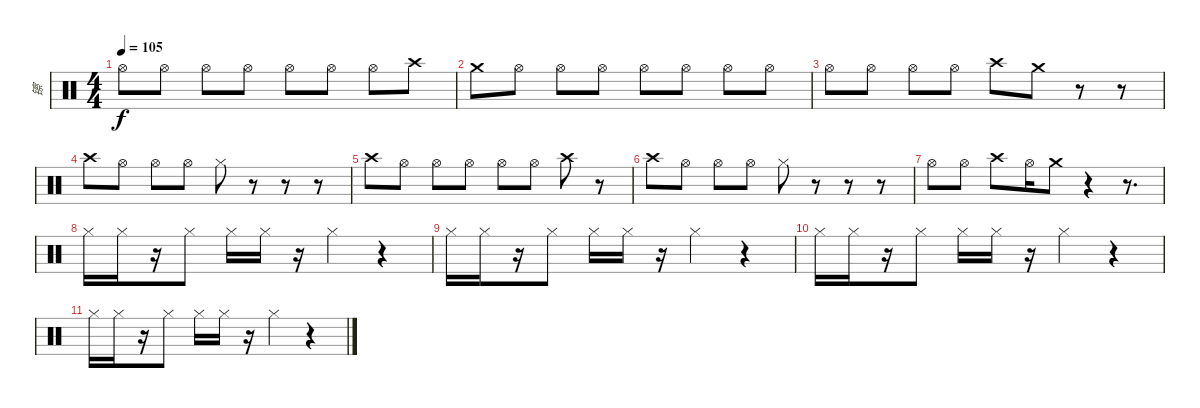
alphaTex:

\track ("镲" "镲") {instrument percussion}
\staff {score}
\articulation defaults
\ts (4 4)
\tempo 105
\clef neutral
\ks c "Hi-Hat (open)".8{dy f} "Hi-Hat (open)".8 "Hi-Hat (open)".8 "Hi-Hat (open)".8 "Hi-Hat (open)".8 "Hi-Hat (open)".8 "Hi-Hat (open)".8 "Crash high (hit)".8
|
"Crash medium (hit)".8 "Hi-Hat (open)".8 "Hi-Hat (open)".8 "Hi-Hat (open)".8 "Hi-Hat (open)".8 "Hi-Hat (open)".8 "Hi-Hat (open)".8 "Hi-Hat (open)".8 |
"Hi-Hat (open)".8 "Hi-Hat (open)".8 "Hi-Hat (open)".8 "Hi-Hat (open)".8 "Crash high (hit)".8 "Crash medium (hit)".8 r.8 r.8 |
"Crash high (hit)".8 "Hi-Hat (open)".8 "Hi-Hat (open)".8 "Hi-Hat (open)".8 "Hi-Hat (closed)".8 r.8 r.8 r.8 |
"Crash high (hit)".8 "Hi-Hat (open)".8 "Hi-Hat (open)".8 "Hi-Hat (open)".8 "Hi-Hat (open)".8 "Hi-Hat (open)".8 "Crash high (hit)".8 r.8 |
"Crash high (hit)".8 "Hi-Hat (open)".8 "Hi-Hat (open)".8 "Hi-Hat (open)".8 "Hi-Hat (closed)".8 r.8 r.8 r.8 |
"Hi-Hat (open)".8 "Hi-Hat (open)".8 "Crash high (hit)".8 "Hi-Hat (open)".16 "Crash medium (hit)".8 r.4 r.8{d} |
"Hi-Hat (closed)".16 "Hi-Hat (closed)".16 r.16 "Hi-Hat (closed)".8 "Hi-Hat (closed)".16 "Hi-Hat (closed)".16 r.16 "Hi-Hat (closed)".4 r.4 |
"Hi-Hat (closed)".16 "Hi-Hat (closed)".16 r.16 "Hi-Hat (closed)".8 "Hi-Hat (closed)".16 "Hi-Hat (closed)".16 r.16 "Hi-Hat (closed)".4 r.4 |
"Hi-Hat (closed)".16 "Hi-Hat (closed)".16 r.16 "Hi-Hat (closed)".8 "Hi-Hat (closed)".16 "Hi-Hat (closed)".16 r.16 "Hi-Hat (closed)".4 r.4 |
"Hi-Hat (closed)".16 "Hi-Hat (closed)".16 r.16 "Hi-Hat (closed)".8 "Hi-Hat (closed)".16 "Hi-Hat (closed)".16 r.16 "Hi-Hat (closed)".4 r.4
